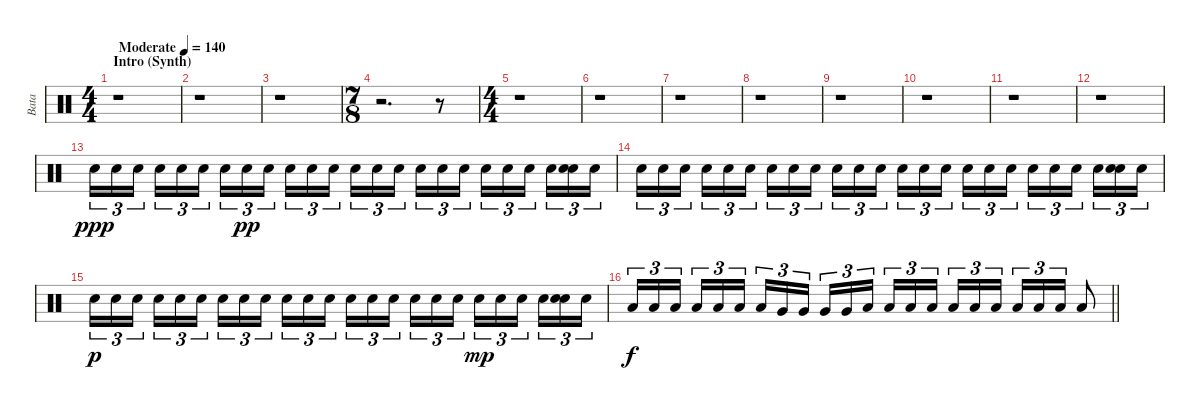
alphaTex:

\track ("Bata" "Bata") {instrument percussion}
\staff {score}
\articulation defaults
\ts (4 4)
\section ("" "Intro (Synth)")
\tempo (140 "Moderate")
\clef neutral
\ks c
r.1{dy ppp} |
r.1 |
r.1 |
\ts (7 8)
r.2{d} r.8 |
\ts (4 4)
r.1 |
r.1 |
r.1 |
r.1 |
r.1 |
r.1 |
r.1 |
r.1 |
"Snare (hit) 2".16{tu (3 2)} "Snare (hit) 2".16{tu (3 2)} "Snare (hit) 2".16{tu (3 2) beam splitsecondary} "Snare (hit) 2".16{tu (3 2)} "Snare (hit) 2".16{tu (3 2)} "Snare (hit) 2".16{tu (3 2)} "Snare (hit) 2".16{tu (3 2)} "Snare (hit) 2".16{tu (3 2) dy pp} "Snare (hit) 2".16{tu (3 2) beam splitsecondary} "Snare (hit) 2".16{tu (3 2)} "Snare (hit) 2".16{tu (3 2)} "Snare (hit) 2".16{tu (3 2)} "Snare (hit) 2".16{tu (3 2)} "Snare (hit) 2".16{tu (3 2)} "Snare (hit) 2".16{tu (3 2) beam splitsecondary} "Snare (hit) 2".16{tu (3 2)} "Snare (hit) 2".16{tu (3 2)} "Snare (hit) 2".16{tu (3 2)} "Snare (hit) 2".16{tu (3 2)} "Snare (hit) 2".16{tu (3 2)} "Snare (hit) 2".16{tu (3 2) beam splitsecondary} "Snare (hit) 2".16{tu (3 2)} ("Snare (hit) 2" "Snare (hit) 2").16{tu (3 2)} "Snare (hit) 2".16{tu (3 2)} |
"Snare (hit) 2".16{tu (3 2)} "Snare (hit) 2".16{tu (3 2)} "Snare (hit) 2".16{tu (3 2) beam splitsecondary} "Snare (hit) 2".16{tu (3 2)} "Snare (hit) 2".16{tu (3 2)} "Snare (hit) 2".16{tu (3 2)} "Snare (hit) 2".16{tu (3 2)} "Snare (hit) 2".16{tu (3 2)} "Snare (hit) 2".16{tu (3 2) beam splitsecondary} "Snare (hit) 2".16{tu (3 2)} "Snare (hit) 2".16{tu (3 2)} "Snare (hit) 2".16{tu (3 2)} "Snare (hit) 2".16{tu (3 2)} "Snare (hit) 2".16{tu (3 2)} "Snare (hit) 2".16{tu (3 2) beam splitsecondary} "Snare (hit) 2".16{tu (3 2)} "Snare (hit) 2".16{tu (3 2)} "Snare (hit) 2".16{tu (3 2)} "Snare (hit) 2".16{tu (3 2)} "Snare (hit) 2".16{tu (3 2)} "Snare (hit) 2".16{tu (3 2) beam splitsecondary} "Snare (hit) 2".16{tu (3 2)} ("Snare (hit) 2" "Snare (hit) 2").16{tu (3 2)} "Snare (hit) 2".16{tu (3 2)} |
"Snare (hit) 2".16{tu (3 2) dy p} "Snare (hit) 2".16{tu (3 2)} "Snare (hit) 2".16{tu (3 2) beam splitsecondary} "Snare (hit) 2".16{tu (3 2)} "Snare (hit) 2".16{tu (3 2)} "Snare (hit) 2".16{tu (3 2)} "Snare (hit) 2".16{tu (3 2)} "Snare (hit) 2".16{tu (3 2)} "Snare (hit) 2".16{tu (3 2) beam splitsecondary} "Snare (hit) 2".16{tu (3 2)} "Snare (hit) 2".16{tu (3 2)} "Snare (hit) 2".16{tu (3 2)} "Snare (hit) 2".16{tu (3 2)} "Snare (hit) 2".16{tu (3 2)} "Snare (hit) 2".16{tu (3 2) beam splitsecondary} "Snare (hit) 2".16{tu (3 2)} "Snare (hit) 2".16{tu (3 2)} "Snare (hit) 2".16{tu (3 2)} "Snare (hit) 2".16{tu (3 2) dy mp} "Snare (hit) 2".16{tu (3 2)} "Snare (hit) 2".16{tu (3 2) beam splitsecondary} "Snare (hit) 2".16{tu (3 2)} ("Snare (hit) 2" "Snare (hit) 2").16{tu (3 2)} "Snare (hit) 2".16{tu (3 2)} |
\barLineRight lightlight "Low Tom (hit)".16{tu (3 2) dy f} "Low Tom (hit)".16{tu (3 2)} "Low Tom (hit)".16{tu (3 2) beam splitsecondary} "Low Tom (hit)".16{tu (3 2)} "Low Tom (hit)".16{tu (3 2)} "Low Tom (hit)".16{tu (3 2)} "Low Tom (hit)".16{tu (3 2)} "Very Low Tom (hit)".16{tu (3 2)} "Very Low Tom (hit)".16{tu (3 2) beam splitsecondary} "Very Low Tom (hit)".16{tu (3 2)} "Very Low Tom (hit)".16{tu (3 2)} "Low Floor Tom (hit)".16{tu (3 2)} "Low Floor Tom (hit)".16{tu (3 2)} "Low Floor Tom (hit)".16{tu (3 2)} "Low Floor Tom (hit)".16{tu (3 2) beam splitsecondary} "Low Floor Tom (hit)".16{tu (3 2)} "Low Floor Tom (hit)".16{tu (3 2)} "Low Floor Tom (hit)".16{tu (3 2)} "Low Floor Tom (hit)".16{tu (3 2)} "Low Floor Tom (hit)".16{tu (3 2)} "Low Floor Tom (hit)".16{tu (3 2)} "Low Floor Tom (hit)".8
